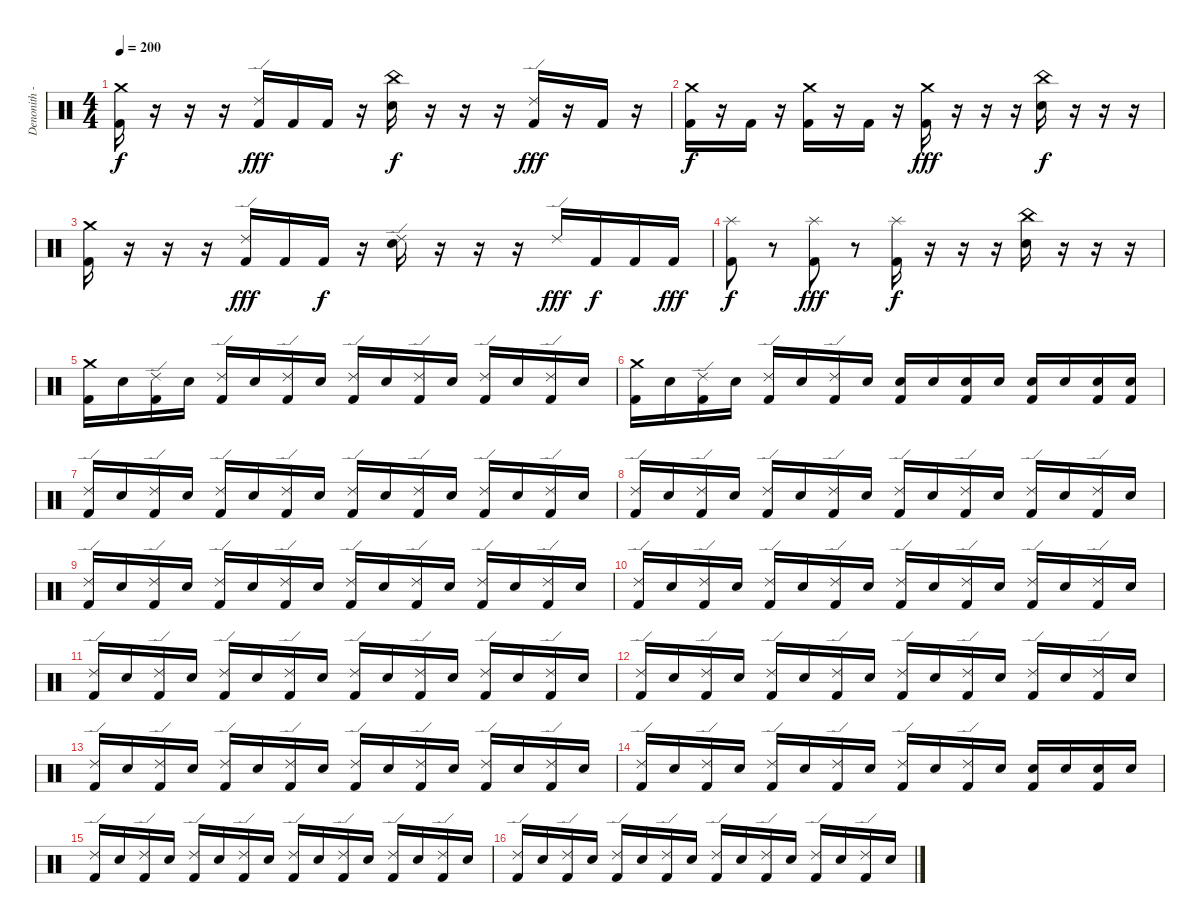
\track ("Denonith - Spyros" "Denonith -") {instrument percussion}
\staff {score}
\articulation defaults
\ts (4 4)
\tempo 200
\clef neutral
\ks c
("Crash medium (hit)" "Kick (hit) 2").16{dy f} r.16 r.16 r.16 ("Ride (edge) 2" "Kick (hit) 2").16{dy fff} "Kick (hit) 2".16 "Kick (hit) 2".16 r.16 ("China (hit)" "Electric Snare (hit)").16{dy f} r.16 r.16 r.16 ("Ride (edge) 2" "Kick (hit) 2").16{dy fff} r.16 "Kick (hit) 2".16 r.16 |
("Crash medium (hit)" "Kick (hit) 2").16{dy f} r.16 "Kick (hit) 2".16 r.16 ("Crash medium (hit)" "Kick (hit) 2").16 r.16 "Kick (hit) 2".16 r.16 ("Crash medium (hit)" "Kick (hit) 2").16{dy fff} r.16 r.16 r.16 ("China (hit)" "Electric Snare (hit)").16{dy f} r.16 r.16 r.16 |
("Crash medium (hit)" "Kick (hit) 2").16 r.16 r.16 r.16 ("Ride (edge) 2" "Kick (hit) 2").16{dy fff} "Kick (hit) 2".16 "Kick (hit) 2".16{dy f} r.16 ("Ride (edge) 2" "Electric Snare (hit)").16 r.16 r.16 r.16 "Ride (edge) 2".16{dy fff} "Kick (hit) 2".16{dy f} "Kick (hit) 2".16 "Kick (hit) 2".16{dy fff} |
("Splash (hit)" "Kick (hit) 2").8{dy f} r.8 ("Splash (hit)" "Kick (hit) 2").8{dy fff} r.8 ("Splash (hit)" "Kick (hit) 2").16{dy f} r.16 r.16 r.16 ("China (hit)" "Electric Snare (hit)").16 r.16 r.16 r.16 |
("Crash medium (hit)" "Kick (hit) 2").16 "Electric Snare (hit)".16 ("Ride (edge) 2" "Kick (hit) 2").16 "Electric Snare (hit)".16 ("Ride (edge) 2" "Kick (hit) 2").16 "Electric Snare (hit)".16 ("Ride (edge) 2" "Kick (hit) 2").16 "Electric Snare (hit)".16 ("Ride (edge) 2" "Kick (hit) 2").16 "Electric Snare (hit)".16 ("Ride (edge) 2" "Kick (hit) 2").16 "Electric Snare (hit)".16 ("Ride (edge) 2" "Kick (hit) 2").16 "Electric Snare (hit)".16 ("Ride (edge) 2" "Kick (hit) 2").16 "Electric Snare (hit)".16 |
("Crash medium (hit)" "Kick (hit) 2").16 "Electric Snare (hit)".16 ("Ride (edge) 2" "Kick (hit) 2").16 "Electric Snare (hit)".16 ("Ride (edge) 2" "Kick (hit) 2").16 "Electric Snare (hit)".16 ("Ride (edge) 2" "Kick (hit) 2").16 "Electric Snare (hit)".16 ("Electric Snare (hit)" "Kick (hit) 2").16 "Electric Snare (hit)".16 ("Electric Snare (hit)" "Kick (hit) 2").16 "Electric Snare (hit)".16 ("Electric Snare (hit)" "Kick (hit) 2").16 "Electric Snare (hit)".16 ("Electric Snare (hit)" "Kick (hit) 2").16 ("Electric Snare (hit)" "Kick (hit) 2").16 |
("Ride (edge) 2" "Kick (hit) 2").16 "Electric Snare (hit)".16 ("Ride (edge) 2" "Kick (hit) 2").16 "Electric Snare (hit)".16 ("Ride (edge) 2" "Kick (hit) 2").16 "Electric Snare (hit)".16 ("Ride (edge) 2" "Kick (hit) 2").16 "Electric Snare (hit)".16 ("Ride (edge) 2" "Kick (hit) 2").16 "Electric Snare (hit)".16 ("Ride (edge) 2" "Kick (hit) 2").16 "Electric Snare (hit)".16 ("Ride (edge) 2" "Kick (hit) 2").16 "Electric Snare (hit)".16 ("Ride (edge) 2" "Kick (hit) 2").16 "Electric Snare (hit)".16 |
("Ride (edge) 2" "Kick (hit) 2").16 "Electric Snare (hit)".16 ("Ride (edge) 2" "Kick (hit) 2").16 "Electric Snare (hit)".16 ("Ride (edge) 2" "Kick (hit) 2").16 "Electric Snare (hit)".16 ("Ride (edge) 2" "Kick (hit) 2").16 "Electric Snare (hit)".16 ("Ride (edge) 2" "Kick (hit) 2").16 "Electric Snare (hit)".16 ("Ride (edge) 2" "Kick (hit) 2").16 "Electric Snare (hit)".16 ("Ride (edge) 2" "Kick (hit) 2").16 "Electric Snare (hit)".16 ("Ride (edge) 2" "Kick (hit) 2").16 "Electric Snare (hit)".16 |
("Ride (edge) 2" "Kick (hit) 2").16 "Electric Snare (hit)".16 ("Ride (edge) 2" "Kick (hit) 2").16 "Electric Snare (hit)".16 ("Ride (edge) 2" "Kick (hit) 2").16 "Electric Snare (hit)".16 ("Ride (edge) 2" "Kick (hit) 2").16 "Electric Snare (hit)".16 ("Ride (edge) 2" "Kick (hit) 2").16 "Electric Snare (hit)".16 ("Ride (edge) 2" "Kick (hit) 2").16 "Electric Snare (hit)".16 ("Ride (edge) 2" "Kick (hit) 2").16 "Electric Snare (hit)".16 ("Ride (edge) 2" "Kick (hit) 2").16 "Electric Snare (hit)".16 |
("Ride (edge) 2" "Kick (hit) 2").16 "Electric Snare (hit)".16 ("Ride (edge) 2" "Kick (hit) 2").16 "Electric Snare (hit)".16 ("Ride (edge) 2" "Kick (hit) 2").16 "Electric Snare (hit)".16 ("Ride (edge) 2" "Kick (hit) 2").16 "Electric Snare (hit)".16 ("Ride (edge) 2" "Kick (hit) 2").16 "Electric Snare (hit)".16 ("Ride (edge) 2" "Kick (hit) 2").16 "Electric Snare (hit)".16 ("Ride (edge) 2" "Kick (hit) 2").16 "Electric Snare (hit)".16 ("Ride (edge) 2" "Kick (hit) 2").16 "Electric Snare (hit)".16 |
("Ride (edge) 2" "Kick (hit) 2").16 "Electric Snare (hit)".16 ("Ride (edge) 2" "Kick (hit) 2").16 "Electric Snare (hit)".16 ("Ride (edge) 2" "Kick (hit) 2").16 "Electric Snare (hit)".16 ("Ride (edge) 2" "Kick (hit) 2").16 "Electric Snare (hit)".16 ("Ride (edge) 2" "Kick (hit) 2").16 "Electric Snare (hit)".16 ("Ride (edge) 2" "Kick (hit) 2").16 "Electric Snare (hit)".16 ("Ride (edge) 2" "Kick (hit) 2").16 "Electric Snare (hit)".16 ("Ride (edge) 2" "Kick (hit) 2").16 "Electric Snare (hit)".16 |
("Ride (edge) 2" "Kick (hit) 2").16 "Electric Snare (hit)".16 ("Ride (edge) 2" "Kick (hit) 2").16 "Electric Snare (hit)".16 ("Ride (edge) 2" "Kick (hit) 2").16 "Electric Snare (hit)".16 ("Ride (edge) 2" "Kick (hit) 2").16 "Electric Snare (hit)".16 ("Ride (edge) 2" "Kick (hit) 2").16 "Electric Snare (hit)".16 ("Ride (edge) 2" "Kick (hit) 2").16 "Electric Snare (hit)".16 ("Ride (edge) 2" "Kick (hit) 2").16 "Electric Snare (hit)".16 ("Ride (edge) 2" "Kick (hit) 2").16 "Electric Snare (hit)".16 |
("Ride (edge) 2" "Kick (hit) 2").16 "Electric Snare (hit)".16 ("Ride (edge) 2" "Kick (hit) 2").16 "Electric Snare (hit)".16 ("Ride (edge) 2" "Kick (hit) 2").16 "Electric Snare (hit)".16 ("Ride (edge) 2" "Kick (hit) 2").16 "Electric Snare (hit)".16 ("Ride (edge) 2" "Kick (hit) 2").16 "Electric Snare (hit)".16 ("Ride (edge) 2" "Kick (hit) 2").16 "Electric Snare (hit)".16 ("Ride (edge) 2" "Kick (hit) 2").16 "Electric Snare (hit)".16 ("Ride (edge) 2" "Kick (hit) 2").16 "Electric Snare (hit)".16 |
("Ride (edge) 2" "Kick (hit) 2").16 "Electric Snare (hit)".16 ("Ride (edge) 2" "Kick (hit) 2").16 "Electric Snare (hit)".16 ("Ride (edge) 2" "Kick (hit) 2").16 "Electric Snare (hit)".16 ("Ride (edge) 2" "Kick (hit) 2").16 "Electric Snare (hit)".16 ("Ride (edge) 2" "Kick (hit) 2").16 "Electric Snare (hit)".16 ("Ride (edge) 2" "Kick (hit) 2").16 "Electric Snare (hit)".16 ("Electric Snare (hit)" "Kick (hit) 2").16 "Electric Snare (hit)".16 ("Electric Snare (hit)" "Kick (hit) 2").16 "Electric Snare (hit)".16 |
("Ride (edge) 2" "Kick (hit) 2").16 "Electric Snare (hit)".16 ("Ride (edge) 2" "Kick (hit) 2").16 "Electric Snare (hit)".16 ("Ride (edge) 2" "Kick (hit) 2").16 "Electric Snare (hit)".16 ("Ride (edge) 2" "Kick (hit) 2").16 "Electric Snare (hit)".16 ("Ride (edge) 2" "Kick (hit) 2").16 "Electric Snare (hit)".16 ("Ride (edge) 2" "Kick (hit) 2").16 "Electric Snare (hit)".16 ("Ride (edge) 2" "Kick (hit) 2").16 "Electric Snare (hit)".16 ("Ride (edge) 2" "Kick (hit) 2").16 "Electric Snare (hit)".16 |
("Ride (edge) 2" "Kick (hit) 2").16 "Electric Snare (hit)".16 ("Ride (edge) 2" "Kick (hit) 2").16 "Electric Snare (hit)".16 ("Ride (edge) 2" "Kick (hit) 2").16 "Electric Snare (hit)".16 ("Ride (edge) 2" "Kick (hit) 2").16 "Electric Snare (hit)".16 ("Ride (edge) 2" "Kick (hit) 2").16 "Electric Snare (hit)".16 ("Ride (edge) 2" "Kick (hit) 2").16 "Electric Snare (hit)".16 ("Ride (edge) 2" "Kick (hit) 2").16 "Electric Snare (hit)".16 ("Ride (edge) 2" "Kick (hit) 2").16 "Electric Snare (hit)".16
